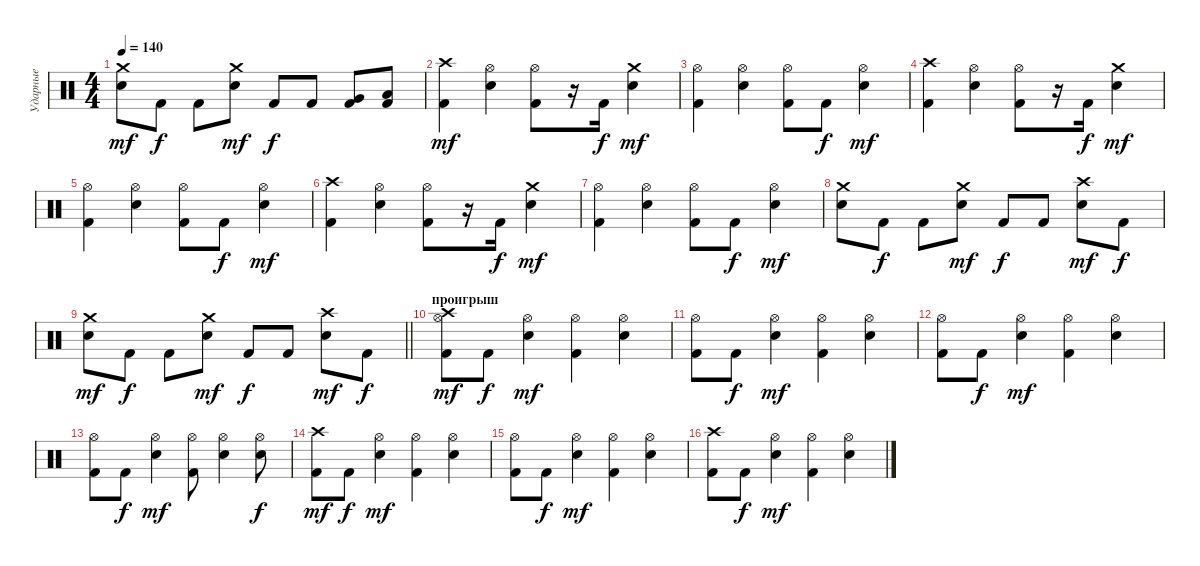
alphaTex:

\track ("Ударные" "Ударные") {instrument percussion}
\staff {score}
\articulation defaults
\ts (4 4)
\tempo 140
\clef neutral
\ks c
("Electric Snare (hit)" "Crash medium (hit)").8{dy mf} "Kick (hit) 2".8{dy f} "Kick (hit) 2".8 ("Electric Snare (hit)" "Crash medium (hit)").8{dy mf} "Kick (hit) 2".8{dy f} "Kick (hit) 2".8 ("Kick (hit) 2" "Very Low Tom (hit)").8 ("Kick (hit) 2" "Low Floor Tom (hit)").8 |
("Kick (hit) 2" "Crash high (hit)").4{dy mf} ("Electric Snare (hit)" "Hi-Hat (open)").4 ("Kick (hit) 2" "Hi-Hat (open)").8 r.16 "Kick (hit) 2".16{dy f} ("Electric Snare (hit)" "Crash medium (hit)").4{dy mf} |
("Kick (hit) 2" "Hi-Hat (open)").4 ("Electric Snare (hit)" "Hi-Hat (open)").4 ("Kick (hit) 2" "Hi-Hat (open)").8 "Kick (hit) 2".8{dy f} ("Electric Snare (hit)" "Hi-Hat (open)").4{dy mf} |
("Kick (hit) 2" "Crash high (hit)").4 ("Electric Snare (hit)" "Hi-Hat (open)").4 ("Kick (hit) 2" "Hi-Hat (open)").8 r.16 "Kick (hit) 2".16{dy f} ("Electric Snare (hit)" "Crash medium (hit)").4{dy mf} |
("Kick (hit) 2" "Hi-Hat (open)").4 ("Electric Snare (hit)" "Hi-Hat (open)").4 ("Kick (hit) 2" "Hi-Hat (open)").8 "Kick (hit) 2".8{dy f} ("Electric Snare (hit)" "Hi-Hat (open)").4{dy mf} |
("Kick (hit) 2" "Crash high (hit)").4 ("Electric Snare (hit)" "Hi-Hat (open)").4 ("Kick (hit) 2" "Hi-Hat (open)").8 r.16 "Kick (hit) 2".16{dy f} ("Electric Snare (hit)" "Crash medium (hit)").4{dy mf} |
("Kick (hit) 2" "Hi-Hat (open)").4 ("Electric Snare (hit)" "Hi-Hat (open)").4 ("Kick (hit) 2" "Hi-Hat (open)").8 "Kick (hit) 2".8{dy f} ("Electric Snare (hit)" "Hi-Hat (open)").4{dy mf} |
("Electric Snare (hit)" "Crash medium (hit)").8 "Kick (hit) 2".8{dy f} "Kick (hit) 2".8 ("Electric Snare (hit)" "Crash medium (hit)").8{dy mf} "Kick (hit) 2".8{dy f} "Kick (hit) 2".8 ("Electric Snare (hit)" "Crash high (hit)").8{dy mf} "Kick (hit) 2".8{dy f} |
\barLineRight lightlight
("Electric Snare (hit)" "Crash medium (hit)").8{dy mf} "Kick (hit) 2".8{dy f} "Kick (hit) 2".8 ("Electric Snare (hit)" "Crash medium (hit)").8{dy mf} "Kick (hit) 2".8{dy f} "Kick (hit) 2".8 ("Electric Snare (hit)" "Crash high (hit)").8{dy mf} "Kick (hit) 2".8{dy f} |
\section ("" "проигрыш")
("Kick (hit) 2" "Hi-Hat (open)" "Crash high (hit)").8{dy mf} "Kick (hit) 2".8{dy f} ("Snare (hit) 2" "Hi-Hat (open)").4{dy mf} ("Kick (hit) 2" "Hi-Hat (open)").4 ("Snare (hit) 2" "Hi-Hat (open)").4 |
("Kick (hit) 2" "Hi-Hat (open)").8 "Kick (hit) 2".8{dy f} ("Snare (hit) 2" "Hi-Hat (open)").4{dy mf} ("Kick (hit) 2" "Hi-Hat (open)").4 ("Snare (hit) 2" "Hi-Hat (open)").4 |
("Kick (hit) 2" "Hi-Hat (open)").8 "Kick (hit) 2".8{dy f} ("Snare (hit) 2" "Hi-Hat (open)").4{dy mf} ("Kick (hit) 2" "Hi-Hat (open)").4 ("Snare (hit) 2" "Hi-Hat (open)").4 |
("Kick (hit) 2" "Hi-Hat (open)").8 "Kick (hit) 2".8{dy f} ("Snare (hit) 2" "Hi-Hat (open)").4{dy mf} ("Kick (hit) 2" "Hi-Hat (open)").8 ("Snare (hit) 2" "Hi-Hat (open)").4 ("Snare (hit) 2" "Hi-Hat (open)").8{dy f} |
("Kick (hit) 2" "Crash high (hit)").8{dy mf} "Kick (hit) 2".8{dy f} ("Snare (hit) 2" "Hi-Hat (open)").4{dy mf} ("Kick (hit) 2" "Hi-Hat (open)").4 ("Snare (hit) 2" "Hi-Hat (open)").4 |
("Kick (hit) 2" "Hi-Hat (open)").8 "Kick (hit) 2".8{dy f} ("Snare (hit) 2" "Hi-Hat (open)").4{dy mf} ("Kick (hit) 2" "Hi-Hat (open)").4 ("Snare (hit) 2" "Hi-Hat (open)").4 |
("Kick (hit) 2" "Crash high (hit)").8 "Kick (hit) 2".8{dy f} ("Snare (hit) 2" "Hi-Hat (open)").4{dy mf} ("Kick (hit) 2" "Hi-Hat (open)").4 ("Snare (hit) 2" "Hi-Hat (open)").4
